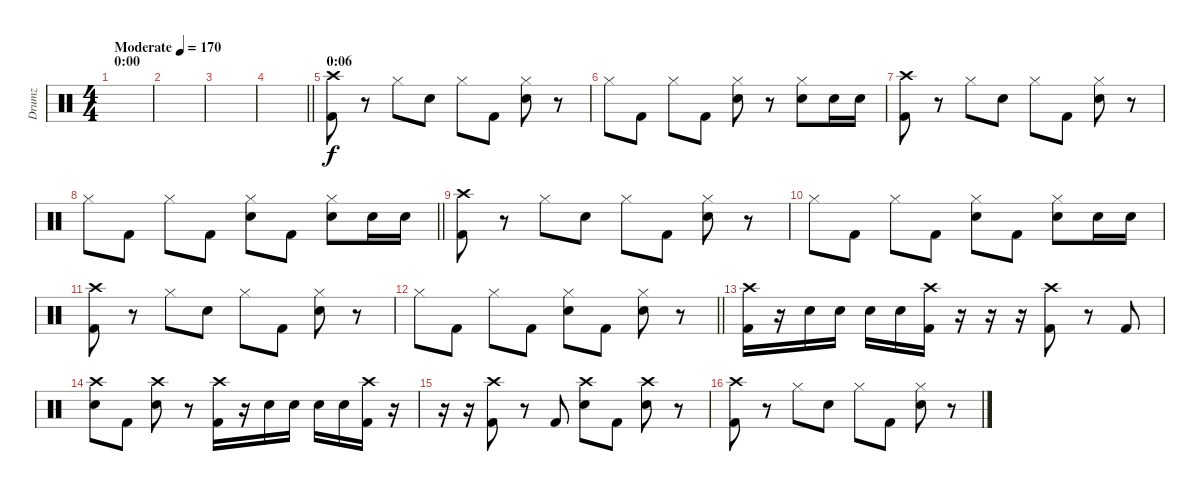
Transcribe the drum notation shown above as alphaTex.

\track ("Drumz" "Drumz") {instrument percussion}
\staff {score}
\articulation defaults
\ts (4 4)
\section ("" "0:00")
\tempo (170 "Moderate")
\clef neutral
\ks c
|
|
|
\barLineRight lightlight
|
\section ("" "0:06")
("Crash high (hit)" "Kick (hit) 2").8 r.8 "Hi-Hat (closed)".8 "Electric Snare (hit)".8 "Hi-Hat (closed)".8 "Kick (hit) 2".8 ("Hi-Hat (closed)" "Electric Snare (hit)").8 r.8 |
"Hi-Hat (closed)".8 "Kick (hit) 2".8 "Hi-Hat (closed)".8 "Kick (hit) 2".8 ("Hi-Hat (closed)" "Electric Snare (hit)").8 r.8 ("Hi-Hat (closed)" "Electric Snare (hit)").8 "Electric Snare (hit)".16 "Electric Snare (hit)".16 |
("Crash high (hit)" "Kick (hit) 2").8 r.8 "Hi-Hat (closed)".8 "Electric Snare (hit)".8 "Hi-Hat (closed)".8 "Kick (hit) 2".8 ("Hi-Hat (closed)" "Electric Snare (hit)").8 r.8 |
\barLineRight lightlight "Hi-Hat (closed)".8 "Kick (hit) 2".8 "Hi-Hat (closed)".8 "Kick (hit) 2".8
("Hi-Hat (closed)" "Electric Snare (hit)").8 "Kick (hit) 2".8 ("Hi-Hat (closed)" "Electric Snare (hit)").8 "Electric Snare (hit)".16 "Electric Snare (hit)".16 |
("Crash high (hit)" "Kick (hit) 2").8 r.8 "Hi-Hat (closed)".8 "Electric Snare (hit)".8 "Hi-Hat (closed)".8 "Kick (hit) 2".8 ("Hi-Hat (closed)" "Electric Snare (hit)").8 r.8 |
"Hi-Hat (closed)".8 "Kick (hit) 2".8 "Hi-Hat (closed)".8 "Kick (hit) 2".8 ("Hi-Hat (closed)" "Electric Snare (hit)").8 "Kick (hit) 2".8 ("Hi-Hat (closed)" "Electric Snare (hit)").8 "Electric Snare (hit)".16 "Electric Snare (hit)".16 |
("Crash high (hit)" "Kick (hit) 2").8 r.8 "Hi-Hat (closed)".8 "Electric Snare (hit)".8 "Hi-Hat (closed)".8 "Kick (hit) 2".8 ("Hi-Hat (closed)" "Electric Snare (hit)").8 r.8 |
\barLineRight lightlight "Hi-Hat (closed)".8 "Kick (hit) 2".8 "Hi-Hat (closed)".8 "Kick (hit) 2".8
("Hi-Hat (closed)" "Electric Snare (hit)").8 "Kick (hit) 2".8 ("Hi-Hat (closed)" "Electric Snare (hit)").8 r.8 |
("Crash high (hit)" "Kick (hit) 2").16 r.16 "Electric Snare (hit)".16 "Electric Snare (hit)".16 "Electric Snare (hit)".16 "Electric Snare (hit)".16 ("Crash high (hit)" "Kick (hit) 2").16 r.16 r.16 r.16 ("Crash high (hit)" "Kick (hit) 2").8 r.8 "Kick (hit) 2".8 |
("Crash high (hit)" "Electric Snare (hit)").8 "Kick (hit) 2".8 ("Crash high (hit)" "Electric Snare (hit)").8 r.8 ("Crash high (hit)" "Kick (hit) 2").16 r.16 "Electric Snare (hit)".16 "Electric Snare (hit)".16 "Electric Snare (hit)".16 "Electric Snare (hit)".16 ("Crash high (hit)" "Kick (hit) 2").16 r.16 |
r.16 r.16 ("Crash high (hit)" "Kick (hit) 2").8 r.8 "Kick (hit) 2".8 ("Crash high (hit)" "Electric Snare (hit)").8 "Kick (hit) 2".8 ("Crash high (hit)" "Electric Snare (hit)").8 r.8 |
("Crash high (hit)" "Kick (hit) 2").8 r.8 "Hi-Hat (closed)".8 "Electric Snare (hit)".8 "Hi-Hat (closed)".8 "Kick (hit) 2".8 ("Hi-Hat (closed)" "Electric Snare (hit)").8 r.8
